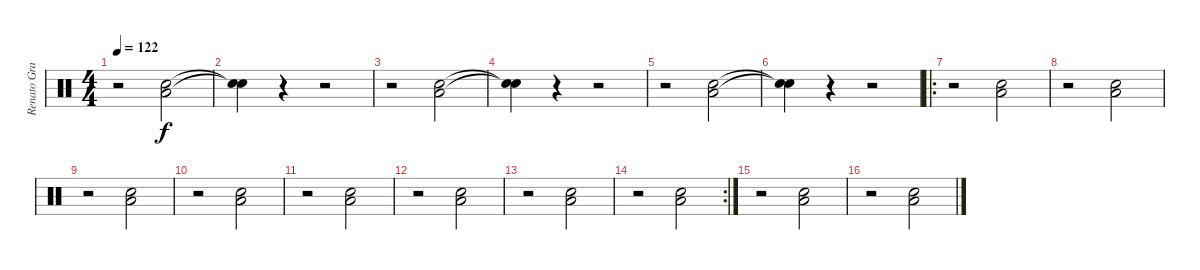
\track ("Renato Graccia" "Renato Gra") {instrument percussion}
\staff {score}
\articulation defaults
\ts (4 4)
\tempo 122
\clef neutral
\ks c
r.2{dy f} ("Low Floor Tom (hit)" "Snare (hit) 2").2 |
("Snare (hit)"{t} "Snare (hit)"{t}).4 r.4 r.2 |
r.2 ("Low Floor Tom (hit)" "Snare (hit) 2").2 |
("Snare (hit)"{t} "Snare (hit)"{t}).4 r.4 r.2 |
r.2 ("Low Floor Tom (hit)" "Snare (hit) 2").2 |
("Snare (hit)"{t} "Snare (hit)"{t}).4 r.4 r.2 |
\ro
r.2 ("Low Floor Tom (hit)" "Snare (hit) 2").2 |
r.2 ("Low Floor Tom (hit)" "Snare (hit) 2").2 |
r.2 ("Low Floor Tom (hit)" "Snare (hit) 2").2 |
r.2 ("Low Floor Tom (hit)" "Snare (hit) 2").2 |
r.2 ("Low Floor Tom (hit)" "Snare (hit) 2").2 |
r.2 ("Low Floor Tom (hit)" "Snare (hit) 2").2 |
r.2 ("Low Floor Tom (hit)" "Snare (hit) 2").2 |
\rc 2
r.2 ("Low Floor Tom (hit)" "Snare (hit) 2").2 |
r.2 ("Low Floor Tom (hit)" "Snare (hit) 2").2 |
r.2 ("Low Floor Tom (hit)" "Snare (hit) 2").2
